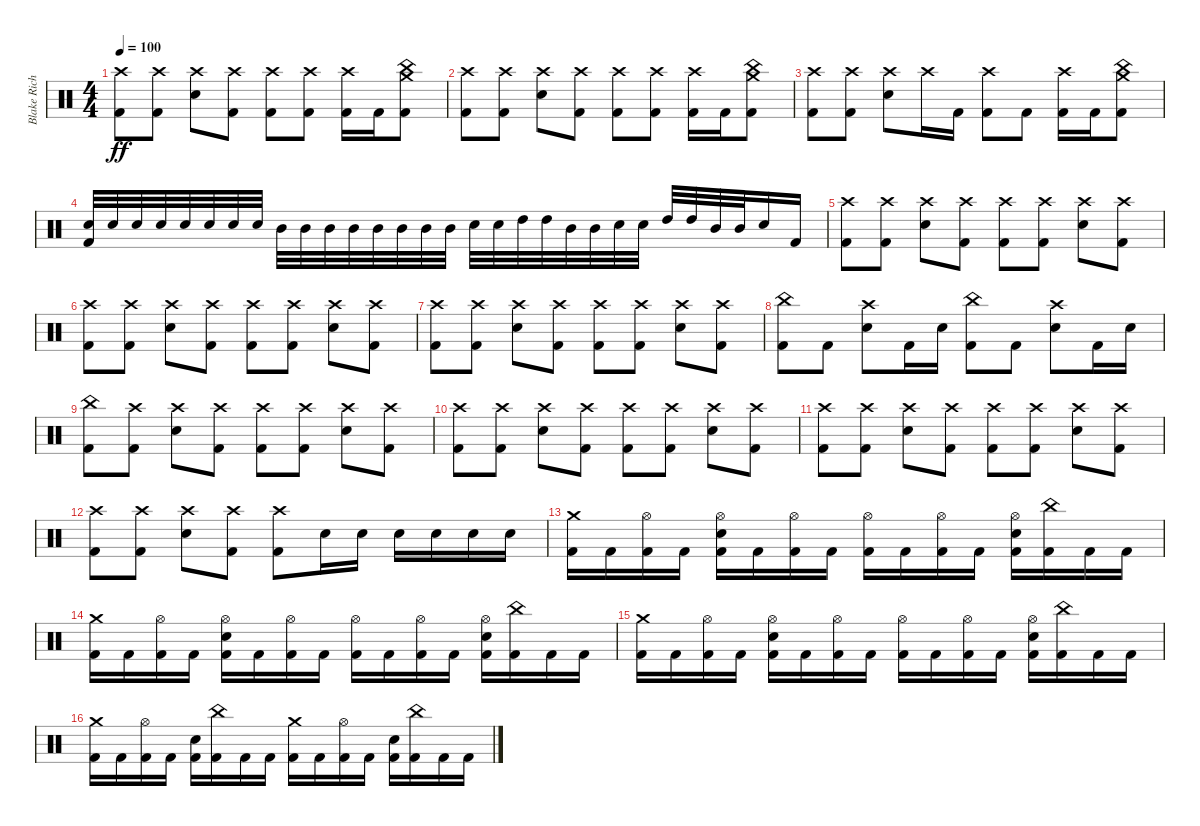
\track ("Blake Richardson" "Blake Rich") {instrument percussion}
\staff {score}
\articulation defaults
\ts (4 4)
\tempo 100
\clef neutral
\ks c
("Crash high (hit)" "Kick (hit) 2").8{dy ff} ("Crash high (hit)" "Kick (hit) 2").8 ("Crash high (hit)" "Electric Snare (hit)").8 ("Crash high (hit)" "Kick (hit) 2").8 ("Crash high (hit)" "Kick (hit) 2").8 ("Crash high (hit)" "Kick (hit) 2").8 ("Crash high (hit)" "Kick (hit) 2").16 "Kick (hit) 2".16 ("China (hit)" "Crash medium (hit)" "Kick (hit) 2").8 |
("Crash high (hit)" "Kick (hit) 2").8 ("Crash high (hit)" "Kick (hit) 2").8 ("Crash high (hit)" "Electric Snare (hit)").8 ("Crash high (hit)" "Kick (hit) 2").8 ("Crash high (hit)" "Kick (hit) 2").8 ("Crash high (hit)" "Kick (hit) 2").8 ("Crash high (hit)" "Kick (hit) 2").16 "Kick (hit) 2".16 ("China (hit)" "Crash medium (hit)" "Kick (hit) 2").8 |
("Crash high (hit)" "Kick (hit) 2").8 ("Crash high (hit)" "Kick (hit) 2").8 ("Crash high (hit)" "Electric Snare (hit)").8 "Crash high (hit)".16 "Kick (hit) 2".16 ("Crash high (hit)" "Kick (hit) 2").8 "Kick (hit) 2".8 ("Crash high (hit)" "Kick (hit) 2").16 "Kick (hit) 2".16 ("China (hit)" "Crash medium (hit)" "Kick (hit) 2").8 |
("Electric Snare (hit)" "Kick (hit) 2").32 "Electric Snare (hit)".32 "Electric Snare (hit)".32 "Electric Snare (hit)".32 "Electric Snare (hit)".32 "Electric Snare (hit)".32 "Electric Snare (hit)".32 "Electric Snare (hit)".32 "Mid Tom (hit)".32 "Mid Tom (hit)".32 "Mid Tom (hit)".32 "Mid Tom (hit)".32 "Mid Tom (hit)".32 "Mid Tom (hit)".32 "Mid Tom (hit)".32 "Mid Tom (hit)".32 "Electric Snare (hit)".32 "Electric Snare (hit)".32 "High Tom (hit)".32 "High Tom (hit)".32 "Mid Tom (hit)".32 "Mid Tom (hit)".32 "Electric Snare (hit)".32 "Electric Snare (hit)".32 "High Tom (hit)".32 "High Tom (hit)".32 "Mid Tom (hit)".32 "Mid Tom (hit)".32 "Electric Snare (hit)".16 "Kick (hit) 2".16 |
("Crash high (hit)" "Kick (hit) 2").8 ("Crash high (hit)" "Kick (hit) 2").8 ("Crash high (hit)" "Electric Snare (hit)").8 ("Crash high (hit)" "Kick (hit) 2").8 ("Crash high (hit)" "Kick (hit) 2").8 ("Crash high (hit)" "Kick (hit) 2").8 ("Crash high (hit)" "Electric Snare (hit)").8 ("Crash high (hit)" "Kick (hit) 2").8 |
("Crash high (hit)" "Kick (hit) 2").8 ("Crash high (hit)" "Kick (hit) 2").8 ("Crash high (hit)" "Electric Snare (hit)").8 ("Crash high (hit)" "Kick (hit) 2").8 ("Crash high (hit)" "Kick (hit) 2").8 ("Crash high (hit)" "Kick (hit) 2").8 ("Crash high (hit)" "Electric Snare (hit)").8 ("Crash high (hit)" "Kick (hit) 2").8 |
("Crash high (hit)" "Kick (hit) 2").8 ("Crash high (hit)" "Kick (hit) 2").8 ("Crash high (hit)" "Electric Snare (hit)").8 ("Crash high (hit)" "Kick (hit) 2").8 ("Crash high (hit)" "Kick (hit) 2").8 ("Crash high (hit)" "Kick (hit) 2").8 ("Crash high (hit)" "Electric Snare (hit)").8 ("Crash high (hit)" "Kick (hit) 2").8 |
("China (hit)" "Kick (hit) 2").8 "Kick (hit) 2".8 ("Crash high (hit)" "Electric Snare (hit)").8 "Kick (hit) 2".16 "Electric Snare (hit)".16 ("China (hit)" "Kick (hit) 2").8 "Kick (hit) 2".8 ("Crash high (hit)" "Electric Snare (hit)").8 "Kick (hit) 2".16 "Electric Snare (hit)".16 |
("China (hit)" "Kick (hit) 2").8 ("Crash high (hit)" "Kick (hit) 2").8 ("Crash high (hit)" "Electric Snare (hit)").8 ("Crash high (hit)" "Kick (hit) 2").8 ("Crash high (hit)" "Kick (hit) 2").8 ("Crash high (hit)" "Kick (hit) 2").8 ("Crash high (hit)" "Electric Snare (hit)").8 ("Crash high (hit)" "Kick (hit) 2").8 |
("Crash high (hit)" "Kick (hit) 2").8 ("Crash high (hit)" "Kick (hit) 2").8 ("Crash high (hit)" "Electric Snare (hit)").8 ("Crash high (hit)" "Kick (hit) 2").8 ("Crash high (hit)" "Kick (hit) 2").8 ("Crash high (hit)" "Kick (hit) 2").8 ("Crash high (hit)" "Electric Snare (hit)").8 ("Crash high (hit)" "Kick (hit) 2").8 |
("Crash high (hit)" "Kick (hit) 2").8 ("Crash high (hit)" "Kick (hit) 2").8 ("Crash high (hit)" "Electric Snare (hit)").8 ("Crash high (hit)" "Kick (hit) 2").8 ("Crash high (hit)" "Kick (hit) 2").8 ("Crash high (hit)" "Kick (hit) 2").8 ("Crash high (hit)" "Electric Snare (hit)").8 ("Crash high (hit)" "Kick (hit) 2").8 |
("Crash high (hit)" "Kick (hit) 2").8 ("Crash high (hit)" "Kick (hit) 2").8 ("Crash high (hit)" "Electric Snare (hit)").8 ("Crash high (hit)" "Kick (hit) 2").8 ("Crash high (hit)" "Kick (hit) 2").8 "Electric Snare (hit)".16 "Electric Snare (hit)".16 "Electric Snare (hit)".16 "Electric Snare (hit)".16 "Electric Snare (hit)".16 "Electric Snare (hit)".16 |
("Crash medium (hit)" "Kick (hit) 2").16 "Kick (hit) 2".16 ("Hi-Hat (open)" "Kick (hit) 2").16 "Kick (hit) 2".16 ("Hi-Hat (open)" "Electric Snare (hit)" "Kick (hit) 2").16 "Kick (hit) 2".16 ("Hi-Hat (open)" "Kick (hit) 2").16 "Kick (hit) 2".16 ("Hi-Hat (open)" "Kick (hit) 2").16 "Kick (hit) 2".16 ("Hi-Hat (open)" "Kick (hit) 2").16 "Kick (hit) 2".16 ("Hi-Hat (open)" "Electric Snare (hit)" "Kick (hit) 2").16 ("China (hit)" "Kick (hit) 2").16 "Kick (hit) 2".16 "Kick (hit) 2".16 |
("Crash medium (hit)" "Kick (hit) 2").16 "Kick (hit) 2".16 ("Hi-Hat (open)" "Kick (hit) 2").16 "Kick (hit) 2".16 ("Hi-Hat (open)" "Electric Snare (hit)" "Kick (hit) 2").16 "Kick (hit) 2".16 ("Hi-Hat (open)" "Kick (hit) 2").16 "Kick (hit) 2".16 ("Hi-Hat (open)" "Kick (hit) 2").16 "Kick (hit) 2".16 ("Hi-Hat (open)" "Kick (hit) 2").16 "Kick (hit) 2".16 ("Hi-Hat (open)" "Electric Snare (hit)" "Kick (hit) 2").16 ("China (hit)" "Kick (hit) 2").16 "Kick (hit) 2".16 "Kick (hit) 2".16 |
("Crash medium (hit)" "Kick (hit) 2").16 "Kick (hit) 2".16 ("Hi-Hat (open)" "Kick (hit) 2").16 "Kick (hit) 2".16 ("Hi-Hat (open)" "Electric Snare (hit)" "Kick (hit) 2").16 "Kick (hit) 2".16 ("Hi-Hat (open)" "Kick (hit) 2").16 "Kick (hit) 2".16 ("Hi-Hat (open)" "Kick (hit) 2").16 "Kick (hit) 2".16 ("Hi-Hat (open)" "Kick (hit) 2").16 "Kick (hit) 2".16 ("Hi-Hat (open)" "Electric Snare (hit)" "Kick (hit) 2").16 ("China (hit)" "Kick (hit) 2").16 "Kick (hit) 2".16 "Kick (hit) 2".16 |
("Crash medium (hit)" "Kick (hit) 2").16 "Kick (hit) 2".16 ("Hi-Hat (open)" "Kick (hit) 2").16 "Kick (hit) 2".16 ("Electric Snare (hit)" "Kick (hit) 2").16 ("China (hit)" "Kick (hit) 2").16 "Kick (hit) 2".16 "Kick (hit) 2".16 ("Crash medium (hit)" "Kick (hit) 2").16 "Kick (hit) 2".16 ("Hi-Hat (open)" "Kick (hit) 2").16 "Kick (hit) 2".16 ("Electric Snare (hit)" "Kick (hit) 2").16 ("China (hit)" "Kick (hit) 2").16 "Kick (hit) 2".16 "Kick (hit) 2".16
